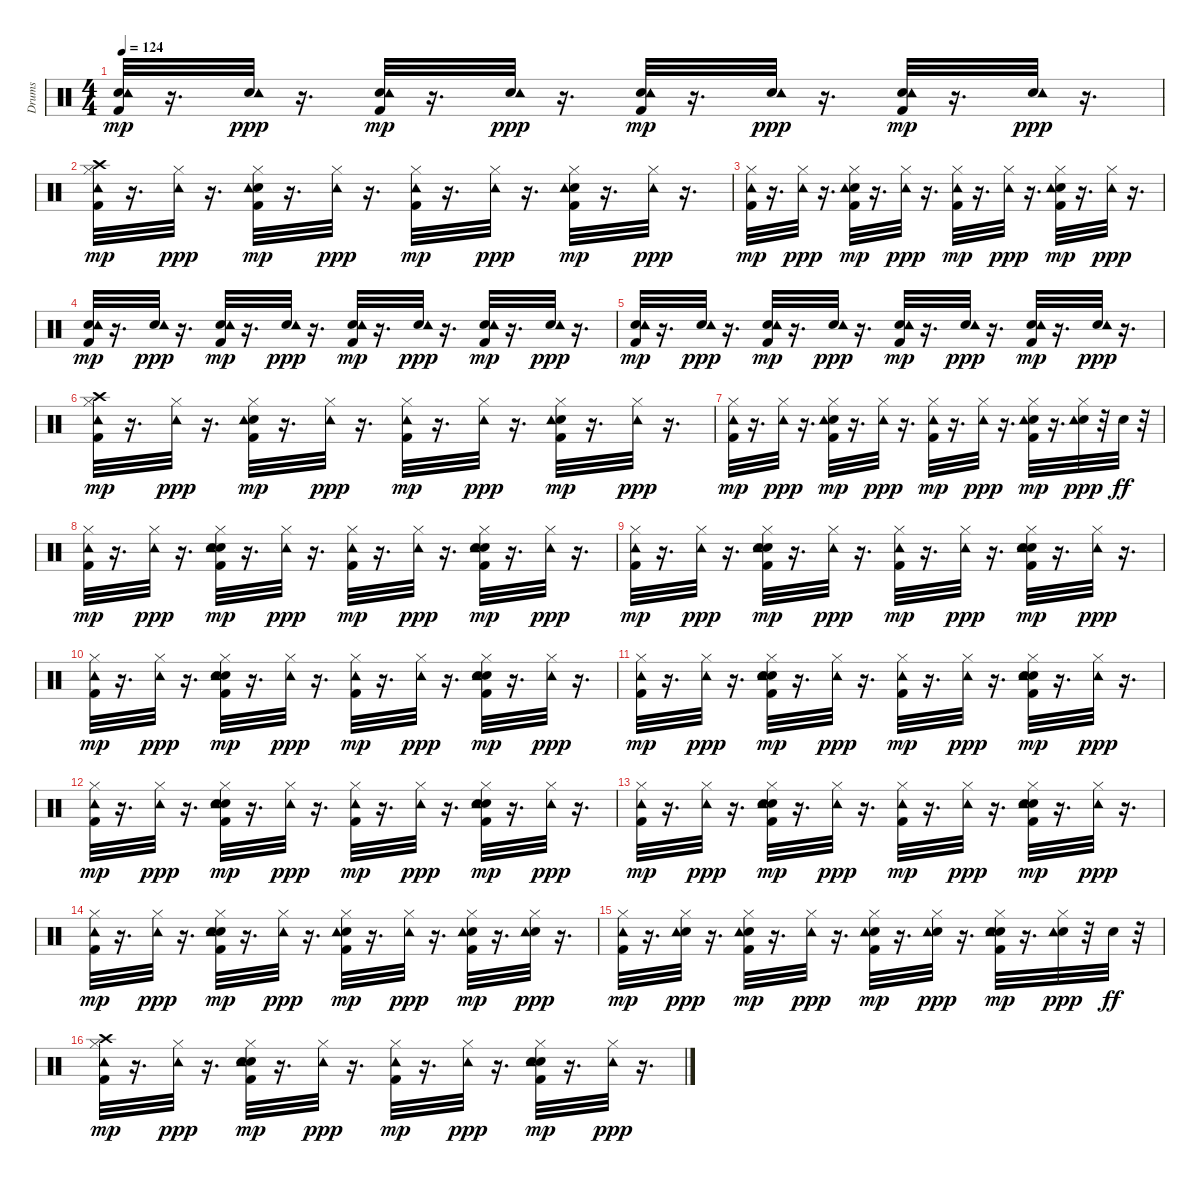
\track ("Drums" "Drums") {instrument percussion}
\staff {score}
\articulation defaults
\ts (4 4)
\tempo 124
\clef neutral
\ks c
("Kick (hit) 2" "Electric Snare (hit)" "Tambourine (hit)").32{dy mp} r.16{d} ("Electric Snare (hit)" "Tambourine (hit)").32{dy ppp} r.16{d} ("Kick (hit) 2" "Electric Snare (hit)" "Tambourine (hit)").32{dy mp} r.16{d} ("Electric Snare (hit)" "Tambourine (hit)").32{dy ppp} r.16{d} ("Kick (hit) 2" "Electric Snare (hit)" "Tambourine (hit)").32{dy mp} r.16{d} ("Electric Snare (hit)" "Tambourine (hit)").32{dy ppp} r.16{d} ("Kick (hit) 2" "Electric Snare (hit)" "Tambourine (hit)").32{dy mp} r.16{d} ("Electric Snare (hit)" "Tambourine (hit)").32{dy ppp} r.16{d} |
("Kick (hit) 2" "Hi-Hat (closed)" "Crash high (hit)" "Tambourine (hit)").32{dy mp} r.16{d} ("Hi-Hat (closed)" "Tambourine (hit)").32{dy ppp} r.16{d} ("Kick (hit) 2" "Electric Snare (hit)" "Hi-Hat (closed)" "Tambourine (hit)").32{dy mp} r.16{d} ("Hi-Hat (closed)" "Tambourine (hit)").32{dy ppp} r.16{d} ("Kick (hit) 2" "Hi-Hat (closed)" "Tambourine (hit)").32{dy mp} r.16{d} ("Hi-Hat (closed)" "Tambourine (hit)").32{dy ppp} r.16{d} ("Kick (hit) 2" "Electric Snare (hit)" "Hi-Hat (closed)" "Tambourine (hit)").32{dy mp} r.16{d} ("Hi-Hat (closed)" "Tambourine (hit)").32{dy ppp} r.16{d} |
("Kick (hit) 2" "Hi-Hat (closed)" "Tambourine (hit)").32{dy mp} r.16{d} ("Hi-Hat (closed)" "Tambourine (hit)").32{dy ppp} r.16{d} ("Kick (hit) 2" "Electric Snare (hit)" "Hi-Hat (closed)" "Tambourine (hit)").32{dy mp} r.16{d} ("Hi-Hat (closed)" "Tambourine (hit)").32{dy ppp} r.16{d} ("Kick (hit) 2" "Hi-Hat (closed)" "Tambourine (hit)").32{dy mp} r.16{d} ("Hi-Hat (closed)" "Tambourine (hit)").32{dy ppp} r.16{d} ("Kick (hit) 2" "Electric Snare (hit)" "Hi-Hat (closed)" "Tambourine (hit)").32{dy mp} r.16{d} ("Hi-Hat (closed)" "Tambourine (hit)").32{dy ppp} r.16{d} |
("Kick (hit) 2" "Electric Snare (hit)" "Tambourine (hit)").32{dy mp} r.16{d} ("Electric Snare (hit)" "Tambourine (hit)").32{dy ppp} r.16{d} ("Kick (hit) 2" "Electric Snare (hit)" "Tambourine (hit)").32{dy mp} r.16{d} ("Electric Snare (hit)" "Tambourine (hit)").32{dy ppp} r.16{d} ("Kick (hit) 2" "Electric Snare (hit)" "Tambourine (hit)").32{dy mp} r.16{d} ("Electric Snare (hit)" "Tambourine (hit)").32{dy ppp} r.16{d} ("Kick (hit) 2" "Electric Snare (hit)" "Tambourine (hit)").32{dy mp} r.16{d} ("Electric Snare (hit)" "Tambourine (hit)").32{dy ppp} r.16{d} |
("Kick (hit) 2" "Electric Snare (hit)" "Tambourine (hit)").32{dy mp} r.16{d} ("Electric Snare (hit)" "Tambourine (hit)").32{dy ppp} r.16{d} ("Kick (hit) 2" "Electric Snare (hit)" "Tambourine (hit)").32{dy mp} r.16{d} ("Electric Snare (hit)" "Tambourine (hit)").32{dy ppp} r.16{d} ("Kick (hit) 2" "Electric Snare (hit)" "Tambourine (hit)").32{dy mp} r.16{d} ("Electric Snare (hit)" "Tambourine (hit)").32{dy ppp} r.16{d} ("Kick (hit) 2" "Electric Snare (hit)" "Tambourine (hit)").32{dy mp} r.16{d} ("Electric Snare (hit)" "Tambourine (hit)").32{dy ppp} r.16{d} |
("Kick (hit) 2" "Hi-Hat (closed)" "Crash high (hit)" "Tambourine (hit)").32{dy mp} r.16{d} ("Hi-Hat (closed)" "Tambourine (hit)").32{dy ppp} r.16{d} ("Kick (hit) 2" "Electric Snare (hit)" "Hi-Hat (closed)" "Tambourine (hit)").32{dy mp} r.16{d} ("Hi-Hat (closed)" "Tambourine (hit)").32{dy ppp} r.16{d} ("Kick (hit) 2" "Hi-Hat (closed)" "Tambourine (hit)").32{dy mp} r.16{d} ("Hi-Hat (closed)" "Tambourine (hit)").32{dy ppp} r.16{d} ("Kick (hit) 2" "Electric Snare (hit)" "Hi-Hat (closed)" "Tambourine (hit)").32{dy mp} r.16{d} ("Hi-Hat (closed)" "Tambourine (hit)").32{dy ppp} r.16{d} |
("Kick (hit) 2" "Hi-Hat (closed)" "Tambourine (hit)").32{dy mp} r.16{d} ("Hi-Hat (closed)" "Tambourine (hit)").32{dy ppp} r.16{d} ("Kick (hit) 2" "Electric Snare (hit)" "Hi-Hat (closed)" "Tambourine (hit)").32{dy mp} r.16{d} ("Hi-Hat (closed)" "Tambourine (hit)").32{dy ppp} r.16{d} ("Kick (hit) 2" "Hi-Hat (closed)" "Tambourine (hit)").32{dy mp} r.16{d} ("Hi-Hat (closed)" "Tambourine (hit)").32{dy ppp} r.16{d} ("Kick (hit) 2" "Electric Snare (hit)" "Hi-Hat (closed)" "Tambourine (hit)").32{dy mp} r.16{d} ("Electric Snare (hit)" "Hi-Hat (closed)" "Tambourine (hit)").32{dy ppp} r.32 "Electric Snare (hit)".32{dy ff} r.32 |
("Kick (hit) 2" "Hi-Hat (closed)" "Tambourine (hit)").32{dy mp} r.16{d} ("Hi-Hat (closed)" "Tambourine (hit)").32{dy ppp} r.16{d} ("Hand Clap (hit)" "Kick (hit) 2" "Electric Snare (hit)" "Hi-Hat (closed)" "Tambourine (hit)").32{dy mp} r.16{d} ("Hi-Hat (closed)" "Tambourine (hit)").32{dy ppp} r.16{d} ("Kick (hit) 2" "Hi-Hat (closed)" "Tambourine (hit)").32{dy mp} r.16{d} ("Hi-Hat (closed)" "Tambourine (hit)").32{dy ppp} r.16{d} ("Hand Clap (hit)" "Kick (hit) 2" "Electric Snare (hit)" "Hi-Hat (closed)" "Tambourine (hit)").32{dy mp} r.16{d} ("Hi-Hat (closed)" "Tambourine (hit)").32{dy ppp} r.16{d} |
("Kick (hit) 2" "Hi-Hat (closed)" "Tambourine (hit)").32{dy mp} r.16{d} ("Hi-Hat (closed)" "Tambourine (hit)").32{dy ppp} r.16{d} ("Hand Clap (hit)" "Kick (hit) 2" "Electric Snare (hit)" "Hi-Hat (closed)" "Tambourine (hit)").32{dy mp} r.16{d} ("Hi-Hat (closed)" "Tambourine (hit)").32{dy ppp} r.16{d} ("Kick (hit) 2" "Hi-Hat (closed)" "Tambourine (hit)").32{dy mp} r.16{d} ("Hi-Hat (closed)" "Tambourine (hit)").32{dy ppp} r.16{d} ("Hand Clap (hit)" "Kick (hit) 2" "Electric Snare (hit)" "Hi-Hat (closed)" "Tambourine (hit)").32{dy mp} r.16{d} ("Hi-Hat (closed)" "Tambourine (hit)").32{dy ppp} r.16{d} |
("Kick (hit) 2" "Hi-Hat (closed)" "Tambourine (hit)").32{dy mp} r.16{d} ("Hi-Hat (closed)" "Tambourine (hit)").32{dy ppp} r.16{d} ("Hand Clap (hit)" "Kick (hit) 2" "Electric Snare (hit)" "Hi-Hat (closed)" "Tambourine (hit)").32{dy mp} r.16{d} ("Hi-Hat (closed)" "Tambourine (hit)").32{dy ppp} r.16{d} ("Kick (hit) 2" "Hi-Hat (closed)" "Tambourine (hit)").32{dy mp} r.16{d} ("Hi-Hat (closed)" "Tambourine (hit)").32{dy ppp} r.16{d} ("Hand Clap (hit)" "Kick (hit) 2" "Electric Snare (hit)" "Hi-Hat (closed)" "Tambourine (hit)").32{dy mp} r.16{d} ("Hi-Hat (closed)" "Tambourine (hit)").32{dy ppp} r.16{d} |
("Kick (hit) 2" "Hi-Hat (closed)" "Tambourine (hit)").32{dy mp} r.16{d} ("Hi-Hat (closed)" "Tambourine (hit)").32{dy ppp} r.16{d} ("Hand Clap (hit)" "Kick (hit) 2" "Electric Snare (hit)" "Hi-Hat (closed)" "Tambourine (hit)").32{dy mp} r.16{d} ("Hi-Hat (closed)" "Tambourine (hit)").32{dy ppp} r.16{d} ("Kick (hit) 2" "Hi-Hat (closed)" "Tambourine (hit)").32{dy mp} r.16{d} ("Hi-Hat (closed)" "Tambourine (hit)").32{dy ppp} r.16{d} ("Hand Clap (hit)" "Kick (hit) 2" "Electric Snare (hit)" "Hi-Hat (closed)" "Tambourine (hit)").32{dy mp} r.16{d} ("Hi-Hat (closed)" "Tambourine (hit)").32{dy ppp} r.16{d} |
("Kick (hit) 2" "Hi-Hat (closed)" "Tambourine (hit)").32{dy mp} r.16{d} ("Hi-Hat (closed)" "Tambourine (hit)").32{dy ppp} r.16{d} ("Hand Clap (hit)" "Kick (hit) 2" "Electric Snare (hit)" "Hi-Hat (closed)" "Tambourine (hit)").32{dy mp} r.16{d} ("Hi-Hat (closed)" "Tambourine (hit)").32{dy ppp} r.16{d} ("Kick (hit) 2" "Hi-Hat (closed)" "Tambourine (hit)").32{dy mp} r.16{d} ("Hi-Hat (closed)" "Tambourine (hit)").32{dy ppp} r.16{d} ("Hand Clap (hit)" "Kick (hit) 2" "Electric Snare (hit)" "Hi-Hat (closed)" "Tambourine (hit)").32{dy mp} r.16{d} ("Hi-Hat (closed)" "Tambourine (hit)").32{dy ppp} r.16{d} |
("Kick (hit) 2" "Hi-Hat (closed)" "Tambourine (hit)").32{dy mp} r.16{d} ("Hi-Hat (closed)" "Tambourine (hit)").32{dy ppp} r.16{d} ("Hand Clap (hit)" "Kick (hit) 2" "Electric Snare (hit)" "Hi-Hat (closed)" "Tambourine (hit)").32{dy mp} r.16{d} ("Hi-Hat (closed)" "Tambourine (hit)").32{dy ppp} r.16{d} ("Kick (hit) 2" "Hi-Hat (closed)" "Tambourine (hit)").32{dy mp} r.16{d} ("Hi-Hat (closed)" "Tambourine (hit)").32{dy ppp} r.16{d} ("Hand Clap (hit)" "Kick (hit) 2" "Electric Snare (hit)" "Hi-Hat (closed)" "Tambourine (hit)").32{dy mp} r.16{d} ("Hi-Hat (closed)" "Tambourine (hit)").32{dy ppp} r.16{d} |
("Kick (hit) 2" "Hi-Hat (closed)" "Tambourine (hit)").32{dy mp} r.16{d} ("Hi-Hat (closed)" "Tambourine (hit)").32{dy ppp} r.16{d} ("Hand Clap (hit)" "Kick (hit) 2" "Electric Snare (hit)" "Hi-Hat (closed)" "Tambourine (hit)").32{dy mp} r.16{d} ("Hi-Hat (closed)" "Tambourine (hit)").32{dy ppp} r.16{d} ("Kick (hit) 2" "Electric Snare (hit)" "Hi-Hat (closed)" "Tambourine (hit)").32{dy mp} r.16{d} ("Hi-Hat (closed)" "Tambourine (hit)").32{dy ppp} r.16{d} ("Hand Clap (hit)" "Kick (hit) 2" "Hi-Hat (closed)" "Tambourine (hit)").32{dy mp} r.16{d} ("Electric Snare (hit)" "Hi-Hat (closed)" "Tambourine (hit)").32{dy ppp} r.16{d} |
("Kick (hit) 2" "Hi-Hat (closed)" "Tambourine (hit)").32{dy mp} r.16{d} ("Electric Snare (hit)" "Hi-Hat (closed)" "Tambourine (hit)").32{dy ppp} r.16{d} ("Hand Clap (hit)" "Kick (hit) 2" "Hi-Hat (closed)" "Tambourine (hit)").32{dy mp} r.16{d} ("Hi-Hat (closed)" "Tambourine (hit)").32{dy ppp} r.16{d} ("Kick (hit) 2" "Electric Snare (hit)" "Hi-Hat (closed)" "Tambourine (hit)").32{dy mp} r.16{d} ("Electric Snare (hit)" "Hi-Hat (closed)" "Tambourine (hit)").32{dy ppp} r.16{d} ("Hand Clap (hit)" "Kick (hit) 2" "Electric Snare (hit)" "Hi-Hat (closed)" "Tambourine (hit)").32{dy mp} r.16{d} ("Electric Snare (hit)" "Hi-Hat (closed)" "Tambourine (hit)").32{dy ppp} r.32 "Electric Snare (hit)".32{dy ff} r.32 |
("Kick (hit) 2" "Hi-Hat (closed)" "Crash high (hit)" "Tambourine (hit)").32{dy mp} r.16{d} ("Hi-Hat (closed)" "Tambourine (hit)").32{dy ppp} r.16{d} ("Hand Clap (hit)" "Kick (hit) 2" "Electric Snare (hit)" "Hi-Hat (closed)" "Tambourine (hit)").32{dy mp} r.16{d} ("Hi-Hat (closed)" "Tambourine (hit)").32{dy ppp} r.16{d} ("Kick (hit) 2" "Hi-Hat (closed)" "Tambourine (hit)").32{dy mp} r.16{d} ("Hi-Hat (closed)" "Tambourine (hit)").32{dy ppp} r.16{d} ("Hand Clap (hit)" "Kick (hit) 2" "Electric Snare (hit)" "Hi-Hat (closed)" "Tambourine (hit)").32{dy mp} r.16{d} ("Hi-Hat (closed)" "Tambourine (hit)").32{dy ppp} r.16{d}
